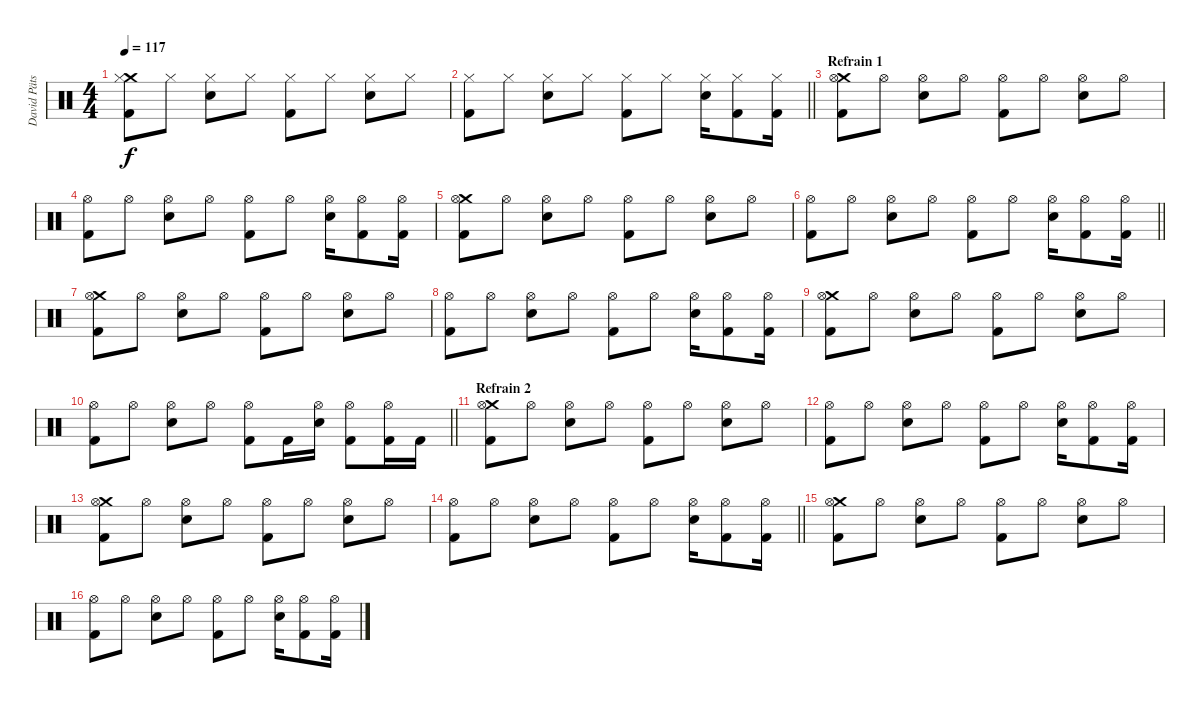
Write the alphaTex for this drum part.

\track ("David Pätsch" "David Päts") {instrument percussion}
\staff {score}
\articulation defaults
\ts (4 4)
\tempo 117
\clef neutral
\ks c
("Crash medium (hit)" "Hi-Hat (closed)" "Kick (hit) 2").8{dy f} "Hi-Hat (closed)".8 ("Hi-Hat (closed)" "Snare (hit) 2").8 "Hi-Hat (closed)".8 ("Hi-Hat (closed)" "Kick (hit) 2").8 "Hi-Hat (closed)".8 ("Hi-Hat (closed)" "Snare (hit) 2").8 "Hi-Hat (closed)".8 |
\barLineRight lightlight
("Hi-Hat (closed)" "Kick (hit) 2").8 "Hi-Hat (closed)".8 ("Hi-Hat (closed)" "Snare (hit) 2").8 "Hi-Hat (closed)".8 ("Hi-Hat (closed)" "Kick (hit) 2").8 "Hi-Hat (closed)".8 ("Hi-Hat (closed)" "Snare (hit) 2").16 ("Hi-Hat (closed)" "Kick (hit) 2").8 ("Hi-Hat (closed)" "Kick (hit) 2").16 |
\section ("" "Refrain 1")
("Crash medium (hit)" "Hi-Hat (open)" "Kick (hit) 2").8 "Hi-Hat (open)".8 ("Hi-Hat (open)" "Snare (hit) 2").8 "Hi-Hat (open)".8 ("Hi-Hat (open)" "Kick (hit) 2").8 "Hi-Hat (open)".8 ("Hi-Hat (open)" "Snare (hit) 2").8 "Hi-Hat (open)".8 |
("Hi-Hat (open)" "Kick (hit) 2").8 "Hi-Hat (open)".8 ("Hi-Hat (open)" "Snare (hit) 2").8 "Hi-Hat (open)".8 ("Hi-Hat (open)" "Kick (hit) 2").8 "Hi-Hat (open)".8 ("Hi-Hat (open)" "Snare (hit) 2").16 ("Hi-Hat (open)" "Kick (hit) 2").8 ("Hi-Hat (open)" "Kick (hit) 2").16 |
("Crash medium (hit)" "Hi-Hat (open)" "Kick (hit) 2").8 "Hi-Hat (open)".8 ("Hi-Hat (open)" "Snare (hit) 2").8 "Hi-Hat (open)".8 ("Hi-Hat (open)" "Kick (hit) 2").8 "Hi-Hat (open)".8 ("Hi-Hat (open)" "Snare (hit) 2").8 "Hi-Hat (open)".8 |
\barLineRight lightlight
("Hi-Hat (open)" "Kick (hit) 2").8 "Hi-Hat (open)".8 ("Hi-Hat (open)" "Snare (hit) 2").8 "Hi-Hat (open)".8 ("Hi-Hat (open)" "Kick (hit) 2").8 "Hi-Hat (open)".8 ("Hi-Hat (open)" "Snare (hit) 2").16 ("Hi-Hat (open)" "Kick (hit) 2").8 ("Hi-Hat (open)" "Kick (hit) 2").16 |
("Crash medium (hit)" "Hi-Hat (open)" "Kick (hit) 2").8 "Hi-Hat (open)".8 ("Hi-Hat (open)" "Snare (hit) 2").8 "Hi-Hat (open)".8 ("Hi-Hat (open)" "Kick (hit) 2").8 "Hi-Hat (open)".8 ("Hi-Hat (open)" "Snare (hit) 2").8 "Hi-Hat (open)".8 |
("Hi-Hat (open)" "Kick (hit) 2").8 "Hi-Hat (open)".8 ("Hi-Hat (open)" "Snare (hit) 2").8 "Hi-Hat (open)".8 ("Hi-Hat (open)" "Kick (hit) 2").8 "Hi-Hat (open)".8 ("Hi-Hat (open)" "Snare (hit) 2").16 ("Hi-Hat (open)" "Kick (hit) 2").8 ("Hi-Hat (open)" "Kick (hit) 2").16 |
("Crash medium (hit)" "Hi-Hat (open)" "Kick (hit) 2").8 "Hi-Hat (open)".8 ("Hi-Hat (open)" "Snare (hit) 2").8 "Hi-Hat (open)".8 ("Hi-Hat (open)" "Kick (hit) 2").8 "Hi-Hat (open)".8 ("Hi-Hat (open)" "Snare (hit) 2").8 "Hi-Hat (open)".8 |
\barLineRight lightlight
("Hi-Hat (open)" "Kick (hit) 2").8 "Hi-Hat (open)".8 ("Hi-Hat (open)" "Snare (hit) 2").8 "Hi-Hat (open)".8 ("Hi-Hat (open)" "Kick (hit) 2").8 "Kick (hit) 2".16 ("Hi-Hat (open)" "Snare (hit) 2").16 ("Hi-Hat (open)" "Kick (hit) 2").8 ("Hi-Hat (open)" "Kick (hit) 2").16 "Kick (hit) 2".16 |
\section ("" "Refrain 2")
("Crash medium (hit)" "Hi-Hat (open)" "Kick (hit) 2").8 "Hi-Hat (open)".8 ("Hi-Hat (open)" "Snare (hit) 2").8 "Hi-Hat (open)".8 ("Hi-Hat (open)" "Kick (hit) 2").8 "Hi-Hat (open)".8 ("Hi-Hat (open)" "Snare (hit) 2").8 "Hi-Hat (open)".8 |
("Hi-Hat (open)" "Kick (hit) 2").8 "Hi-Hat (open)".8 ("Hi-Hat (open)" "Snare (hit) 2").8 "Hi-Hat (open)".8 ("Hi-Hat (open)" "Kick (hit) 2").8 "Hi-Hat (open)".8 ("Hi-Hat (open)" "Snare (hit) 2").16 ("Hi-Hat (open)" "Kick (hit) 2").8 ("Hi-Hat (open)" "Kick (hit) 2").16 |
("Crash medium (hit)" "Hi-Hat (open)" "Kick (hit) 2").8 "Hi-Hat (open)".8 ("Hi-Hat (open)" "Snare (hit) 2").8 "Hi-Hat (open)".8 ("Hi-Hat (open)" "Kick (hit) 2").8 "Hi-Hat (open)".8 ("Hi-Hat (open)" "Snare (hit) 2").8 "Hi-Hat (open)".8 |
\barLineRight lightlight
("Hi-Hat (open)" "Kick (hit) 2").8 "Hi-Hat (open)".8 ("Hi-Hat (open)" "Snare (hit) 2").8 "Hi-Hat (open)".8 ("Hi-Hat (open)" "Kick (hit) 2").8 "Hi-Hat (open)".8 ("Hi-Hat (open)" "Snare (hit) 2").16 ("Hi-Hat (open)" "Kick (hit) 2").8 ("Hi-Hat (open)" "Kick (hit) 2").16 |
("Crash medium (hit)" "Hi-Hat (open)" "Kick (hit) 2").8 "Hi-Hat (open)".8 ("Hi-Hat (open)" "Snare (hit) 2").8 "Hi-Hat (open)".8 ("Hi-Hat (open)" "Kick (hit) 2").8 "Hi-Hat (open)".8 ("Hi-Hat (open)" "Snare (hit) 2").8 "Hi-Hat (open)".8 |
("Hi-Hat (open)" "Kick (hit) 2").8 "Hi-Hat (open)".8 ("Hi-Hat (open)" "Snare (hit) 2").8 "Hi-Hat (open)".8 ("Hi-Hat (open)" "Kick (hit) 2").8 "Hi-Hat (open)".8 ("Hi-Hat (open)" "Snare (hit) 2").16 ("Hi-Hat (open)" "Kick (hit) 2").8 ("Hi-Hat (open)" "Kick (hit) 2").16
